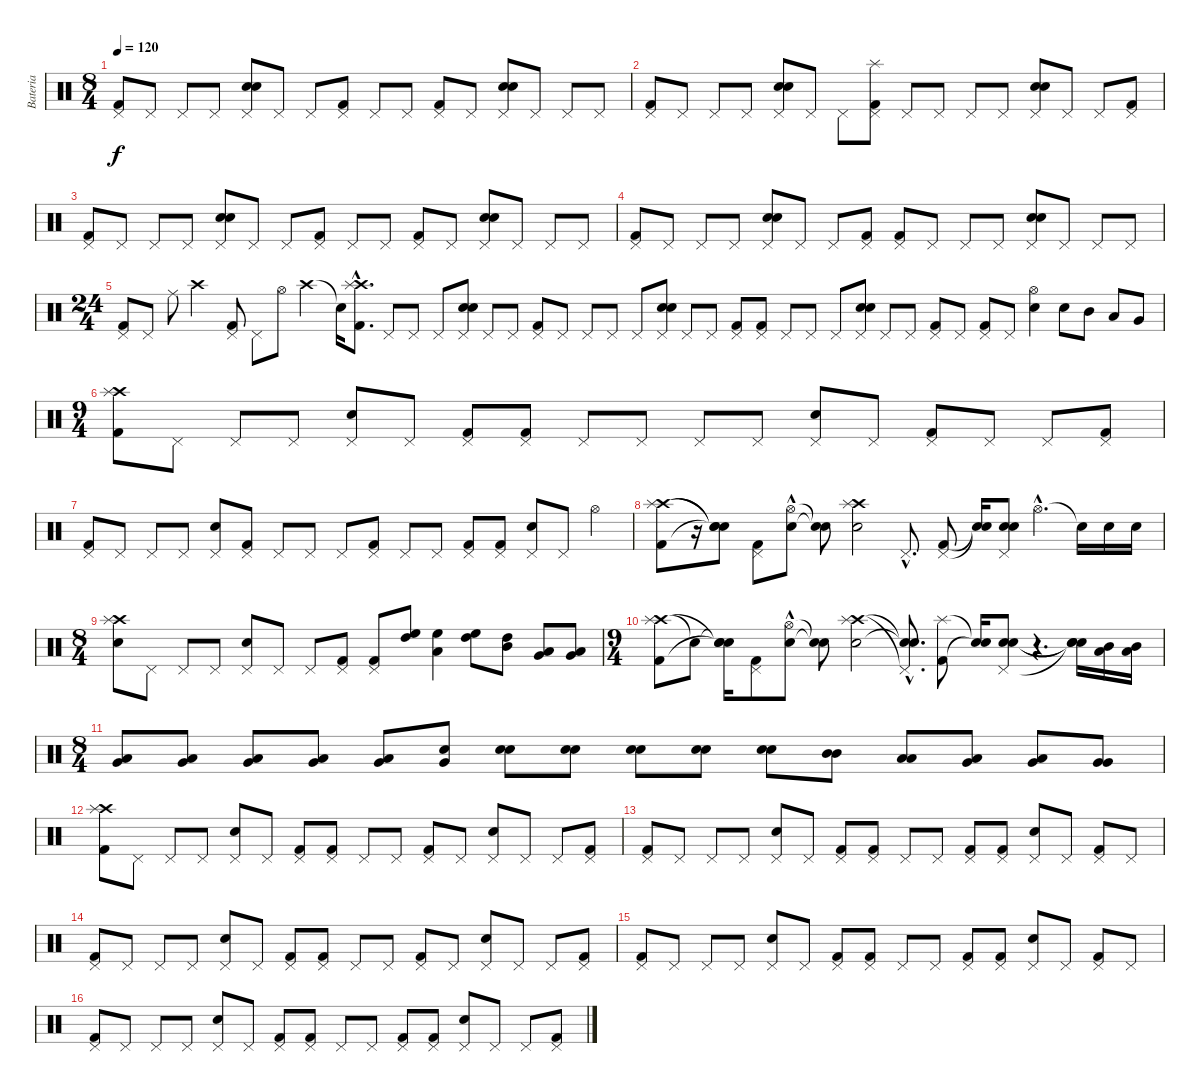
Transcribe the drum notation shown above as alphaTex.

\track ("Bateria" "Bateria") {instrument percussion}
\staff {score}
\articulation defaults
\ts (8 4)
\tempo 120
\clef neutral
\ks c
("Pedal Hi-Hat (hit)" "Kick (hit) 2").8{dy f} "Pedal Hi-Hat (hit)".8 "Pedal Hi-Hat (hit)".8 "Pedal Hi-Hat (hit)".8 ("Pedal Hi-Hat (hit)" "Electric Snare (hit)" "Snare (hit) 2").8 "Pedal Hi-Hat (hit)".8 "Pedal Hi-Hat (hit)".8 ("Pedal Hi-Hat (hit)" "Kick (hit) 2").8 "Pedal Hi-Hat (hit)".8 "Pedal Hi-Hat (hit)".8 ("Pedal Hi-Hat (hit)" "Kick (hit) 2").8 "Pedal Hi-Hat (hit)".8 ("Pedal Hi-Hat (hit)" "Electric Snare (hit)" "Snare (hit) 2").8 "Pedal Hi-Hat (hit)".8 "Pedal Hi-Hat (hit)".8 "Pedal Hi-Hat (hit)".8 |
("Pedal Hi-Hat (hit)" "Kick (hit) 2").8 "Pedal Hi-Hat (hit)".8 "Pedal Hi-Hat (hit)".8 "Pedal Hi-Hat (hit)".8 ("Pedal Hi-Hat (hit)" "Electric Snare (hit)" "Snare (hit) 2").8 "Pedal Hi-Hat (hit)".8 "Pedal Hi-Hat (hit)".8 ("Pedal Hi-Hat (hit)" "Kick (hit) 2" "Splash (hit)").8 "Pedal Hi-Hat (hit)".8 "Pedal Hi-Hat (hit)".8 "Pedal Hi-Hat (hit)".8 "Pedal Hi-Hat (hit)".8 ("Pedal Hi-Hat (hit)" "Electric Snare (hit)" "Snare (hit) 2").8 "Pedal Hi-Hat (hit)".8 "Pedal Hi-Hat (hit)".8 ("Pedal Hi-Hat (hit)" "Kick (hit) 2").8 |
("Pedal Hi-Hat (hit)" "Kick (hit) 2").8 "Pedal Hi-Hat (hit)".8 "Pedal Hi-Hat (hit)".8 "Pedal Hi-Hat (hit)".8 ("Pedal Hi-Hat (hit)" "Electric Snare (hit)" "Snare (hit) 2").8 "Pedal Hi-Hat (hit)".8 "Pedal Hi-Hat (hit)".8 ("Pedal Hi-Hat (hit)" "Kick (hit) 2").8 "Pedal Hi-Hat (hit)".8 "Pedal Hi-Hat (hit)".8 ("Pedal Hi-Hat (hit)" "Kick (hit) 2").8 "Pedal Hi-Hat (hit)".8 ("Pedal Hi-Hat (hit)" "Electric Snare (hit)" "Snare (hit) 2").8 "Pedal Hi-Hat (hit)".8 "Pedal Hi-Hat (hit)".8 "Pedal Hi-Hat (hit)".8 |
("Pedal Hi-Hat (hit)" "Kick (hit) 2").8 "Pedal Hi-Hat (hit)".8 "Pedal Hi-Hat (hit)".8 "Pedal Hi-Hat (hit)".8 ("Pedal Hi-Hat (hit)" "Electric Snare (hit)" "Snare (hit) 2").8 "Pedal Hi-Hat (hit)".8 "Pedal Hi-Hat (hit)".8 ("Pedal Hi-Hat (hit)" "Kick (hit) 2").8 ("Pedal Hi-Hat (hit)" "Kick (hit) 2").8 "Pedal Hi-Hat (hit)".8 "Pedal Hi-Hat (hit)".8 "Pedal Hi-Hat (hit)".8 ("Pedal Hi-Hat (hit)" "Electric Snare (hit)" "Snare (hit) 2").8 "Pedal Hi-Hat (hit)".8 "Pedal Hi-Hat (hit)".8 "Pedal Hi-Hat (hit)".8 |
\ts (24 4)
("Pedal Hi-Hat (hit)" "Kick (hit) 2").8 "Pedal Hi-Hat (hit)".8 "Ride (middle)".8 "Crash high (hit)".2 ("Pedal Hi-Hat (hit)" "Kick (hit) 2").8 "Pedal Hi-Hat (hit)".8 "Hi-Hat (open)".8 "Crash high (hit)".2 "Snare (hit)"{t}.16 ("Crash high (hit)"{hac} "Kick (hit) 2"{hac} "Splash (hit)"{hac}).8{d} "Pedal Hi-Hat (hit)".8 "Pedal Hi-Hat (hit)".8 "Pedal Hi-Hat (hit)".8 ("Pedal Hi-Hat (hit)" "Electric Snare (hit)" "Snare (hit) 2").8 "Pedal Hi-Hat (hit)".8 "Pedal Hi-Hat (hit)".8 ("Pedal Hi-Hat (hit)" "Kick (hit) 2").8 "Pedal Hi-Hat (hit)".8 "Pedal Hi-Hat (hit)".8 "Pedal Hi-Hat (hit)".8 "Pedal Hi-Hat (hit)".8 ("Pedal Hi-Hat (hit)" "Electric Snare (hit)" "Snare (hit) 2").8 "Pedal Hi-Hat (hit)".8 "Pedal Hi-Hat (hit)".8 ("Pedal Hi-Hat (hit)" "Kick (hit) 2").8 ("Pedal Hi-Hat (hit)" "Kick (hit) 2").8 "Pedal Hi-Hat (hit)".8 "Pedal Hi-Hat (hit)".8 "Pedal Hi-Hat (hit)".8 ("Pedal Hi-Hat (hit)" "Electric Snare (hit)" "Snare (hit) 2").8 "Pedal Hi-Hat (hit)".8 "Pedal Hi-Hat (hit)".8 ("Pedal Hi-Hat (hit)" "Kick (hit) 2").8 "Pedal Hi-Hat (hit)".8 ("Pedal Hi-Hat (hit)" "Kick (hit) 2").8 "Pedal Hi-Hat (hit)".8 ("Hi-Hat (open)" "Snare (hit) 2").4 "Snare (hit) 2".8 "Mid Tom (hit)".8 "Low Tom (hit)".8 "Very Low Tom (hit)".8 |
\ts (9 4)
("Crash high (hit)" "Kick (hit) 2" "Splash (hit)").8 "Pedal Hi-Hat (hit)".8 "Pedal Hi-Hat (hit)".8 "Pedal Hi-Hat (hit)".8 ("Pedal Hi-Hat (hit)" "Electric Snare (hit)").8 "Pedal Hi-Hat (hit)".8 ("Pedal Hi-Hat (hit)" "Kick (hit) 2").8 ("Pedal Hi-Hat (hit)" "Kick (hit) 2").8 "Pedal Hi-Hat (hit)".8 "Pedal Hi-Hat (hit)".8 "Pedal Hi-Hat (hit)".8 "Pedal Hi-Hat (hit)".8 ("Pedal Hi-Hat (hit)" "Electric Snare (hit)").8 "Pedal Hi-Hat (hit)".8 ("Pedal Hi-Hat (hit)" "Kick (hit) 2").8 "Pedal Hi-Hat (hit)".8 "Pedal Hi-Hat (hit)".8 ("Pedal Hi-Hat (hit)" "Kick (hit) 2").8 |
("Pedal Hi-Hat (hit)" "Kick (hit) 2").8 "Pedal Hi-Hat (hit)".8 "Pedal Hi-Hat (hit)".8 "Pedal Hi-Hat (hit)".8 ("Pedal Hi-Hat (hit)" "Electric Snare (hit)").8 ("Pedal Hi-Hat (hit)" "Kick (hit) 2").8 "Pedal Hi-Hat (hit)".8 "Pedal Hi-Hat (hit)".8 "Pedal Hi-Hat (hit)".8 ("Pedal Hi-Hat (hit)" "Kick (hit) 2").8 "Pedal Hi-Hat (hit)".8 "Pedal Hi-Hat (hit)".8 ("Pedal Hi-Hat (hit)" "Kick (hit) 2").8 ("Pedal Hi-Hat (hit)" "Kick (hit) 2").8 ("Pedal Hi-Hat (hit)" "Electric Snare (hit)").8 "Pedal Hi-Hat (hit)".8 "Hi-Hat (open)".4 |
("Crash high (hit)" "Kick (hit) 2" "Splash (hit)").8 r.16 ("Snare (hit)"{t} "Snare (hit)"{t} "Snare (hit)"{t}).8 ("Pedal Hi-Hat (hit)" "Kick (hit) 2").8 ("Hi-Hat (open)"{hac} "Electric Snare (hit)").8 ("Snare (hit)"{t} "Snare (hit)"{t}).8 ("Crash high (hit)" "Snare (hit) 2" "Splash (hit)").2 "Pedal Hi-Hat (hit)"{hac}.8{d} ("Pedal Hi-Hat (hit)" "Kick (hit) 2").8 ("Snare (hit)"{t} "Snare (hit)"{t}).16 ("Pedal Hi-Hat (hit)" "Snare (hit) 2" "Electric Snare (hit)").8 "Hi-Hat (open)"{hac}.4{d} "Snare (hit)"{t}.16 "Electric Snare (hit)".16 "Electric Snare (hit)".16 |
\ts (8 4)
("Crash high (hit)" "Snare (hit) 2" "Splash (hit)").8 "Pedal Hi-Hat (hit)".8 "Pedal Hi-Hat (hit)".8 "Pedal Hi-Hat (hit)".8 ("Pedal Hi-Hat (hit)" "Electric Snare (hit)").8 "Pedal Hi-Hat (hit)".8 "Pedal Hi-Hat (hit)".8 ("Pedal Hi-Hat (hit)" "Kick (hit) 2").8 ("Pedal Hi-Hat (hit)" "Kick (hit) 2").8 ("High Tom (hit)" "High Floor Tom (hit)").8{bd 240} ("Low Tom (hit)" "High Floor Tom (hit)").4{bd 240} ("High Tom (hit)" "High Floor Tom (hit)").8{bd 480} ("Mid Tom (hit)" "High Tom (hit)").8{bd 240} ("Very Low Tom (hit)" "Low Tom (hit)").8{bd 480} ("Very Low Tom (hit)" "Low Tom (hit)").8{bd 480} |
\ts (9 4)
("Crash high (hit)" "Kick (hit) 2" "Splash (hit)").8 "Snare (hit)"{t}.8 ("Snare (hit)"{t} "Snare (hit)"{t} "Snare (hit)"{t}).16 ("Pedal Hi-Hat (hit)" "Kick (hit) 2").8 ("Hi-Hat (open)"{hac} "Electric Snare (hit)").8 ("Snare (hit)"{t} "Snare (hit)"{t}).8 ("Crash high (hit)" "Snare (hit) 2" "Splash (hit)").2 ("Pedal Hi-Hat (hit)"{hac t} "Snare (hit)"{hac t} "Snare (hit)"{hac t}).8{d} ("Splash (hit)" "Kick (hit) 2").8 ("Snare (hit)"{t} "Snare (hit)"{t}).16 ("Pedal Hi-Hat (hit)" "Electric Snare (hit)" "Snare (hit) 2").8{bd 480} r.4{d} ("Snare (hit)"{t} "Snare (hit)"{t} "Snare (hit)"{t}).16 ("Low Tom (hit)" "Mid Tom (hit)").16{bd 240} ("Low Tom (hit)" "Mid Tom (hit)").16{bd 240} |
\ts (8 4)
("Low Floor Tom (hit)" "Very Low Tom (hit)").8{bd 60} ("Low Floor Tom (hit)" "Very Low Tom (hit)").8{bd 60} ("Low Floor Tom (hit)" "Very Low Tom (hit)").8{bd 60} ("Low Floor Tom (hit)" "Very Low Tom (hit)").8{bd 60} ("Low Floor Tom (hit)" "Very Low Tom (hit)").8{bd 60} ("Snare (hit) 2" "Very Low Tom (hit)").8{bd 60} ("Snare (hit) 2" "Snare (hit) 2").8{bd 60} ("Snare (hit) 2" "Snare (hit) 2").8{bd 60} ("Snare (hit) 2" "Snare (hit) 2").8{bd 60} ("Snare (hit) 2" "Snare (hit) 2").8{bd 60} ("Snare (hit) 2" "Snare (hit) 2").8{bd 60} ("Mid Tom (hit)" "Mid Tom (hit)").8{bd 60} ("Low Tom (hit)" "Low Tom (hit)").8{bd 60} ("Very Low Tom (hit)" "Low Tom (hit)").8{bd 60} ("Very Low Tom (hit)" "Low Tom (hit)").8{bd 60} ("Very Low Tom (hit)" "Very Low Tom (hit)").8{bd 60} |
("Crash high (hit)" "Kick (hit) 2" "Splash (hit)").8 "Pedal Hi-Hat (hit)".8 "Pedal Hi-Hat (hit)".8 "Pedal Hi-Hat (hit)".8 ("Pedal Hi-Hat (hit)" "Snare (hit) 2").8 "Pedal Hi-Hat (hit)".8 ("Pedal Hi-Hat (hit)" "Kick (hit) 2").8 ("Pedal Hi-Hat (hit)" "Kick (hit) 2").8 "Pedal Hi-Hat (hit)".8 "Pedal Hi-Hat (hit)".8 ("Pedal Hi-Hat (hit)" "Kick (hit) 2").8 "Pedal Hi-Hat (hit)".8 ("Pedal Hi-Hat (hit)" "Snare (hit) 2").8 "Pedal Hi-Hat (hit)".8 "Pedal Hi-Hat (hit)".8 ("Pedal Hi-Hat (hit)" "Kick (hit) 2").8 |
("Pedal Hi-Hat (hit)" "Kick (hit) 2").8 "Pedal Hi-Hat (hit)".8 "Pedal Hi-Hat (hit)".8 "Pedal Hi-Hat (hit)".8 ("Pedal Hi-Hat (hit)" "Snare (hit) 2").8 "Pedal Hi-Hat (hit)".8 ("Pedal Hi-Hat (hit)" "Kick (hit) 2").8 ("Pedal Hi-Hat (hit)" "Kick (hit) 2").8 "Pedal Hi-Hat (hit)".8 "Pedal Hi-Hat (hit)".8 ("Pedal Hi-Hat (hit)" "Kick (hit) 2").8 ("Pedal Hi-Hat (hit)" "Kick (hit) 2").8 ("Pedal Hi-Hat (hit)" "Snare (hit) 2").8 "Pedal Hi-Hat (hit)".8 ("Pedal Hi-Hat (hit)" "Kick (hit) 2").8 "Pedal Hi-Hat (hit)".8 |
("Pedal Hi-Hat (hit)" "Kick (hit) 2").8 "Pedal Hi-Hat (hit)".8 "Pedal Hi-Hat (hit)".8 "Pedal Hi-Hat (hit)".8 ("Pedal Hi-Hat (hit)" "Snare (hit) 2").8 "Pedal Hi-Hat (hit)".8 ("Pedal Hi-Hat (hit)" "Kick (hit) 2").8 ("Pedal Hi-Hat (hit)" "Kick (hit) 2").8 "Pedal Hi-Hat (hit)".8 "Pedal Hi-Hat (hit)".8 ("Pedal Hi-Hat (hit)" "Kick (hit) 2").8 "Pedal Hi-Hat (hit)".8 ("Pedal Hi-Hat (hit)" "Snare (hit) 2").8 "Pedal Hi-Hat (hit)".8 "Pedal Hi-Hat (hit)".8 ("Pedal Hi-Hat (hit)" "Kick (hit) 2").8 |
("Pedal Hi-Hat (hit)" "Kick (hit) 2").8 "Pedal Hi-Hat (hit)".8 "Pedal Hi-Hat (hit)".8 "Pedal Hi-Hat (hit)".8 ("Pedal Hi-Hat (hit)" "Snare (hit) 2").8 "Pedal Hi-Hat (hit)".8 ("Pedal Hi-Hat (hit)" "Kick (hit) 2").8 ("Pedal Hi-Hat (hit)" "Kick (hit) 2").8 "Pedal Hi-Hat (hit)".8 "Pedal Hi-Hat (hit)".8 ("Pedal Hi-Hat (hit)" "Kick (hit) 2").8 ("Pedal Hi-Hat (hit)" "Kick (hit) 2").8 ("Pedal Hi-Hat (hit)" "Snare (hit) 2").8 "Pedal Hi-Hat (hit)".8 ("Pedal Hi-Hat (hit)" "Kick (hit) 2").8 "Pedal Hi-Hat (hit)".8 |
("Pedal Hi-Hat (hit)" "Kick (hit) 2").8 "Pedal Hi-Hat (hit)".8 "Pedal Hi-Hat (hit)".8 "Pedal Hi-Hat (hit)".8 ("Pedal Hi-Hat (hit)" "Snare (hit) 2").8 "Pedal Hi-Hat (hit)".8 ("Pedal Hi-Hat (hit)" "Kick (hit) 2").8 ("Pedal Hi-Hat (hit)" "Kick (hit) 2").8 "Pedal Hi-Hat (hit)".8 "Pedal Hi-Hat (hit)".8 ("Pedal Hi-Hat (hit)" "Kick (hit) 2").8 ("Pedal Hi-Hat (hit)" "Kick (hit) 2").8 ("Pedal Hi-Hat (hit)" "Snare (hit) 2").8 "Pedal Hi-Hat (hit)".8 "Pedal Hi-Hat (hit)".8 ("Pedal Hi-Hat (hit)" "Kick (hit) 2").8
